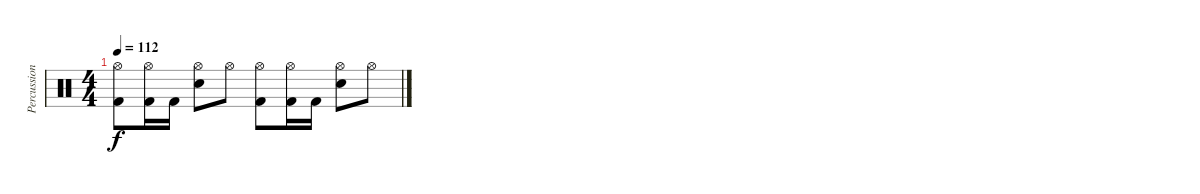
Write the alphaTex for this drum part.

\track ("Percussions" "Percussion") {instrument percussion}
\staff {score}
\articulation defaults
\ts (4 4)
\tempo 112
\clef neutral
\ks c
("Hi-Hat (open)" "Kick (hit) 2").8{dy f} ("Hi-Hat (open)" "Kick (hit) 2").16 "Kick (hit) 2".16 ("Hi-Hat (open)" "Electric Snare (hit)").8 "Hi-Hat (open)".8 ("Hi-Hat (open)" "Kick (hit) 2").8 ("Hi-Hat (open)" "Kick (hit) 2").16 "Kick (hit) 2".16 ("Hi-Hat (open)" "Electric Snare (hit)").8 "Hi-Hat (open)".8
